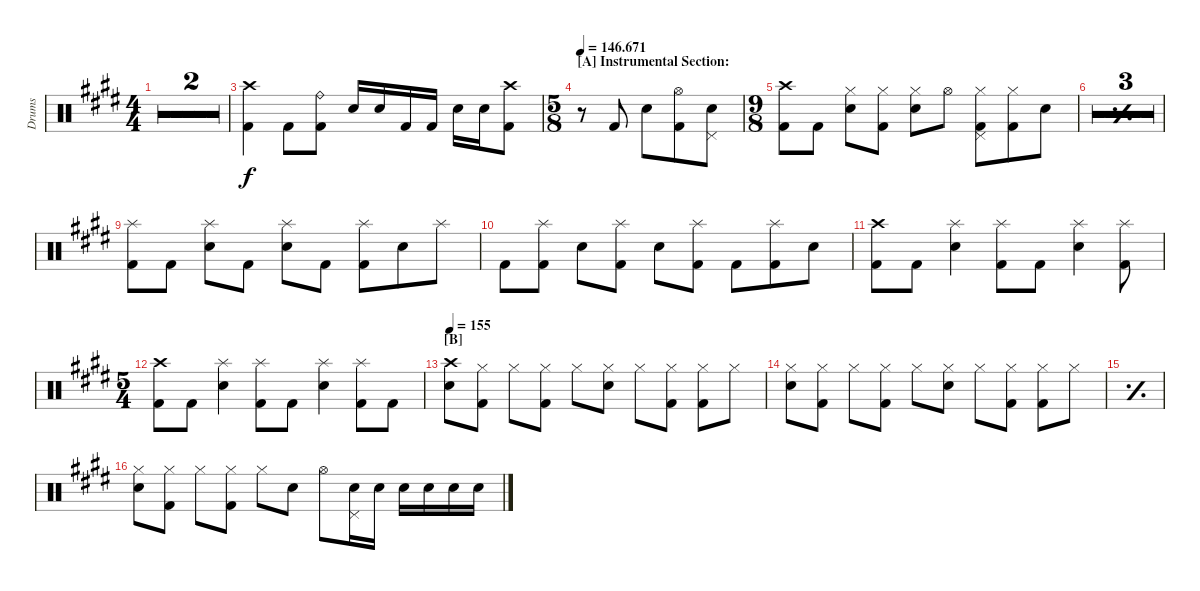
\defaultSystemsLayout 4
\bracketExtendMode groupsimilarinstruments
\otherSystemsTrackNameOrientation horizontal
\track ("Drumkit" "Drums") {multiBarRest instrument percussion}
\staff {score}
\articulation defaults
\ts (4 4)
\tempo 140
\clef neutral
\simile firstofdouble
\ks e
|
\simile secondofdouble
|
("Crash high (hit)"{acc forcenatural} "Kick (hit) 2"{acc forcenatural}).4 "Kick (hit) 2"{acc forcenatural}.8 ("Kick (hit) 2"{acc forcenatural} "Ride (bell)"{acc forcenatural}).8 "Snare (hit) 2"{acc forcenatural}.16 "Snare (hit) 2"{acc forcenatural}.16 "Kick (hit) 2"{acc forcenatural}.16 "Kick (hit) 2"{acc forcenatural}.16 "Snare (hit) 2"{acc forcenatural}.16 "Snare (hit) 2"{acc forcenatural}.16 ("Crash high (hit)"{acc forcenatural} "Kick (hit) 2"{acc forcenatural}).8 |
\ts (5 8)
\beaming (8 2 3)
\section ("A" "Instrumental Section:")
\tempo
146.671 r.8 "Kick (hit) 2"{acc forcenatural}.8 "Snare (hit) 2"{acc forcenatural}.8 ("Kick (hit) 2"{acc forcenatural} "Hi-Hat (open)"{acc forcenatural}).8 ("Snare (hit) 2"{acc forcenatural} "Pedal Hi-Hat (hit)"{acc forcenatural}).8 |
\ts (9 8)
\beaming (8 2 2 2 3)
("Kick (hit) 2"{acc forcenatural} "Crash high (hit)"{acc forcenatural}).8 "Kick (hit) 2"{acc forcenatural}.8 ("Snare (hit) 2"{acc forcenatural} "Hi-Hat (closed)"{acc forcenatural}).8 ("Kick (hit) 2"{acc forcenatural} "Hi-Hat (closed)"{acc forcenatural}).8 ("Hi-Hat (closed)"{acc forcenatural} "Snare (hit) 2"{acc forcenatural}).8 "Hi-Hat (open)"{acc forcenatural}.8 ("Kick (hit) 2"{acc forcenatural} "Hi-Hat (closed)"{acc forcenatural} "Pedal Hi-Hat (hit)"{acc forcenatural}).8 ("Kick (hit) 2"{acc forcenatural} "Hi-Hat (closed)"{acc forcenatural}).8 "Snare (hit) 2"{acc forcenatural}.8 |
\simile simple
|
|
|
\simile none
("Kick (hit) 2"{acc forcenatural} "Splash (hit)"{acc forcenatural}).8 "Kick (hit) 2"{acc forcenatural}.8 ("Snare (hit) 2"{acc forcenatural} "Splash (hit)"{acc forcenatural}).8 "Kick (hit) 2"{acc forcenatural}.8 ("Snare (hit) 2"{acc forcenatural} "Splash (hit)"{acc forcenatural}).8 "Kick (hit) 2"{acc forcenatural}.8 ("Kick (hit) 2"{acc forcenatural} "Splash (hit)"{acc forcenatural}).8 "Snare (hit) 2"{acc forcenatural}.8 "Splash (hit)"{acc forcenatural}.8 |
"Kick (hit) 2"{acc forcenatural}.8 ("Kick (hit) 2"{acc forcenatural} "Splash (hit)"{acc forcenatural}).8 "Snare (hit) 2"{acc forcenatural}.8 ("Kick (hit) 2"{acc forcenatural} "Splash (hit)"{acc forcenatural}).8 "Snare (hit) 2"{acc forcenatural}.8 ("Kick (hit) 2"{acc forcenatural} "Splash (hit)"{acc forcenatural}).8 "Kick (hit) 2"{acc forcenatural}.8 ("Splash (hit)"{acc forcenatural} "Kick (hit) 2"{acc forcenatural}).8 "Snare (hit) 2"{acc forcenatural}.8 |
("Kick (hit) 2"{acc forcenatural} "Crash high (hit)"{acc forcenatural}).8 "Kick (hit) 2"{acc forcenatural}.8 ("Snare (hit) 2"{acc forcenatural} "Splash (hit)"{acc forcenatural}).4 ("Kick (hit) 2"{acc forcenatural} "Splash (hit)"{acc forcenatural}).8 "Kick (hit) 2"{acc forcenatural}.8 ("Snare (hit) 2"{acc forcenatural} "Splash (hit)"{acc forcenatural}).4 ("Kick (hit) 2"{acc forcenatural} "Splash (hit)"{acc forcenatural}).8 |
\ts (5 4)
\beaming (8 2 2 2 2 2)
("Kick (hit) 2"{acc forcenatural} "Crash high (hit)"{acc forcenatural}).8 "Kick (hit) 2"{acc forcenatural}.8 ("Snare (hit) 2"{acc forcenatural} "Splash (hit)"{acc forcenatural}).4 ("Kick (hit) 2"{acc forcenatural} "Splash (hit)"{acc forcenatural}).8 "Kick (hit) 2"{acc forcenatural}.8 ("Snare (hit) 2"{acc forcenatural} "Splash (hit)"{acc forcenatural}).4 ("Kick (hit) 2"{acc forcenatural} "Splash (hit)"{acc forcenatural}).8 "Kick (hit) 2"{acc forcenatural}.8 |
\section ("B" "")
\tempo 155
\ks c#minor
("Snare (hit) 2"{acc forcenatural} "Crash high (hit)"{acc forcenatural}).8 ("Kick (hit) 2"{acc forcenatural} "Hi-Hat (closed)"{acc forcenatural}).8 "Hi-Hat (closed)"{acc forcenatural}.8 ("Kick (hit) 2"{acc forcenatural} "Hi-Hat (closed)"{acc forcenatural}).8 "Hi-Hat (closed)"{acc forcenatural}.8 ("Snare (hit) 2"{acc forcenatural} "Hi-Hat (closed)"{acc forcenatural}).8 "Hi-Hat (closed)"{acc forcenatural}.8 ("Hi-Hat (closed)"{acc forcenatural} "Kick (hit) 2"{acc forcenatural}).8 ("Hi-Hat (closed)"{acc forcenatural} "Kick (hit) 2"{acc forcenatural}).8 "Hi-Hat (closed)"{acc forcenatural}.8 |
("Snare (hit) 2"{acc forcenatural} "Hi-Hat (closed)"{acc forcenatural}).8 ("Kick (hit) 2"{acc forcenatural} "Hi-Hat (closed)"{acc forcenatural}).8 "Hi-Hat (closed)"{acc forcenatural}.8 ("Kick (hit) 2"{acc forcenatural} "Hi-Hat (closed)"{acc forcenatural}).8 "Hi-Hat (closed)"{acc forcenatural}.8 ("Snare (hit) 2"{acc forcenatural} "Hi-Hat (closed)"{acc forcenatural}).8 "Hi-Hat (closed)"{acc forcenatural}.8 ("Hi-Hat (closed)"{acc forcenatural} "Kick (hit) 2"{acc forcenatural}).8 ("Hi-Hat (closed)"{acc forcenatural} "Kick (hit) 2"{acc forcenatural}).8 "Hi-Hat (closed)"{acc forcenatural}.8 |
\simile simple
|
\simile none
("Snare (hit) 2"{acc forcenatural} "Hi-Hat (closed)"{acc forcenatural}).8 ("Kick (hit) 2"{acc forcenatural} "Hi-Hat (closed)"{acc forcenatural}).8 "Hi-Hat (closed)"{acc forcenatural}.8 ("Kick (hit) 2"{acc forcenatural} "Hi-Hat (closed)"{acc forcenatural}).8 "Hi-Hat (closed)"{acc forcenatural}.8 "Snare (hit) 2"{acc forcenatural}.8 "Hi-Hat (open)"{acc forcenatural}.8 ("Pedal Hi-Hat (hit)"{acc forcenatural} "Snare (hit) 2"{acc forcenatural}).16 "Snare (hit) 2"{acc forcenatural}.16 "Snare (hit) 2"{acc forcenatural}.16 "Snare (hit) 2"{acc forcenatural}.16 "Snare (hit) 2"{acc forcenatural}.16 "Snare (hit) 2"{acc forcenatural}.16
